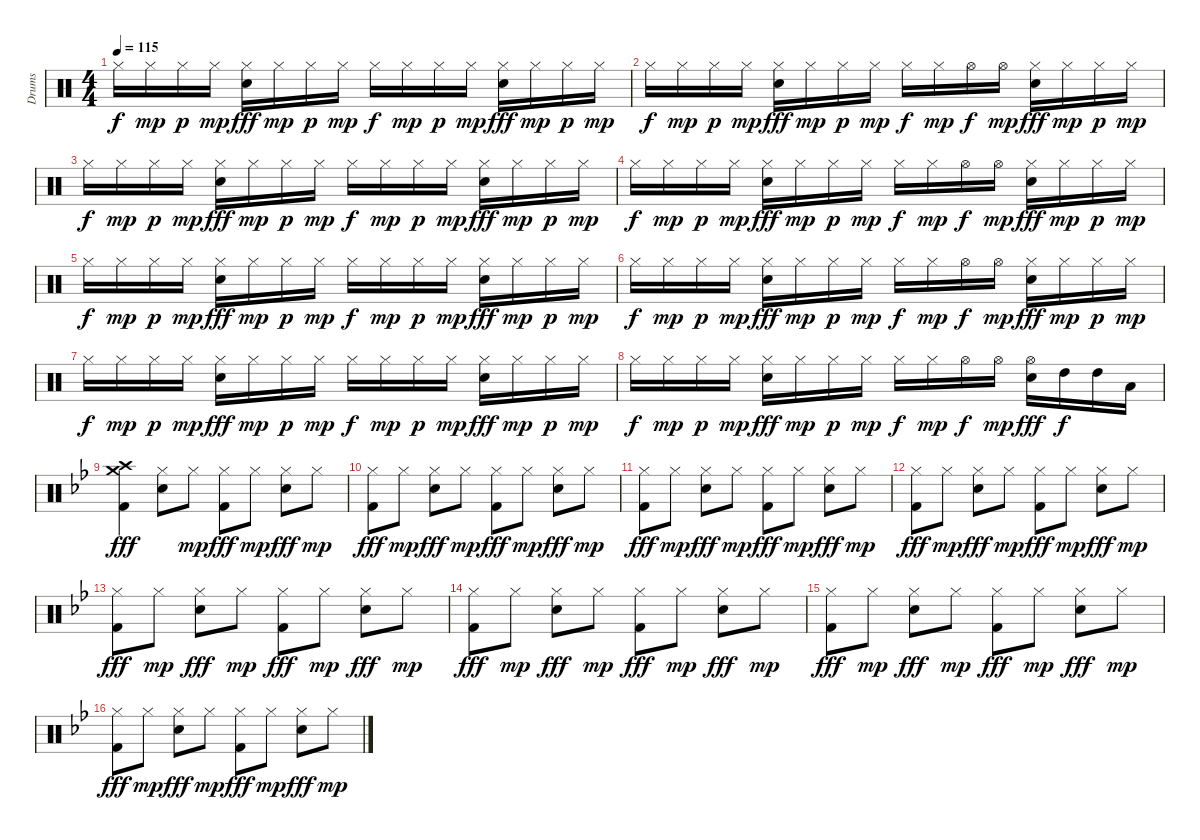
\track ("Drums" "Drums") {instrument percussion}
\staff {score}
\articulation defaults
\ts (4 4)
\tempo 115
\clef neutral
\ks c "Hi-Hat (closed)".16{dy f} "Hi-Hat (closed)".16{dy mp} "Hi-Hat (closed)".16{dy p} "Hi-Hat (closed)".16{dy mp}
("Hi-Hat (closed)" "Electric Snare (hit)").16{dy fff} "Hi-Hat (closed)".16{dy mp} "Hi-Hat (closed)".16{dy p} "Hi-Hat (closed)".16{dy mp} "Hi-Hat (closed)".16{dy f} "Hi-Hat (closed)".16{dy mp} "Hi-Hat (closed)".16{dy p} "Hi-Hat (closed)".16{dy mp} ("Hi-Hat (closed)" "Electric Snare (hit)").16{dy fff} "Hi-Hat (closed)".16{dy mp} "Hi-Hat (closed)".16{dy p} "Hi-Hat (closed)".16{dy mp} |
"Hi-Hat (closed)".16{dy f} "Hi-Hat (closed)".16{dy mp} "Hi-Hat (closed)".16{dy p} "Hi-Hat (closed)".16{dy mp} ("Hi-Hat (closed)" "Electric Snare (hit)").16{dy fff} "Hi-Hat (closed)".16{dy mp} "Hi-Hat (closed)".16{dy p} "Hi-Hat (closed)".16{dy mp} "Hi-Hat (closed)".16{dy f} "Hi-Hat (closed)".16{dy mp} "Hi-Hat (open)".16{dy f} "Hi-Hat (open)".16{dy mp} ("Hi-Hat (closed)" "Electric Snare (hit)").16{dy fff} "Hi-Hat (closed)".16{dy mp} "Hi-Hat (closed)".16{dy p} "Hi-Hat (closed)".16{dy mp} |
"Hi-Hat (closed)".16{dy f} "Hi-Hat (closed)".16{dy mp} "Hi-Hat (closed)".16{dy p} "Hi-Hat (closed)".16{dy mp} ("Hi-Hat (closed)" "Electric Snare (hit)").16{dy fff} "Hi-Hat (closed)".16{dy mp} "Hi-Hat (closed)".16{dy p} "Hi-Hat (closed)".16{dy mp} "Hi-Hat (closed)".16{dy f} "Hi-Hat (closed)".16{dy mp} "Hi-Hat (closed)".16{dy p} "Hi-Hat (closed)".16{dy mp} ("Hi-Hat (closed)" "Electric Snare (hit)").16{dy fff} "Hi-Hat (closed)".16{dy mp} "Hi-Hat (closed)".16{dy p} "Hi-Hat (closed)".16{dy mp} |
"Hi-Hat (closed)".16{dy f} "Hi-Hat (closed)".16{dy mp} "Hi-Hat (closed)".16{dy p} "Hi-Hat (closed)".16{dy mp} ("Hi-Hat (closed)" "Electric Snare (hit)").16{dy fff} "Hi-Hat (closed)".16{dy mp} "Hi-Hat (closed)".16{dy p} "Hi-Hat (closed)".16{dy mp} "Hi-Hat (closed)".16{dy f} "Hi-Hat (closed)".16{dy mp} "Hi-Hat (open)".16{dy f} "Hi-Hat (open)".16{dy mp} ("Hi-Hat (closed)" "Electric Snare (hit)").16{dy fff} "Hi-Hat (closed)".16{dy mp} "Hi-Hat (closed)".16{dy p} "Hi-Hat (closed)".16{dy mp} |
"Hi-Hat (closed)".16{dy f} "Hi-Hat (closed)".16{dy mp} "Hi-Hat (closed)".16{dy p} "Hi-Hat (closed)".16{dy mp} ("Hi-Hat (closed)" "Electric Snare (hit)").16{dy fff} "Hi-Hat (closed)".16{dy mp} "Hi-Hat (closed)".16{dy p} "Hi-Hat (closed)".16{dy mp} "Hi-Hat (closed)".16{dy f} "Hi-Hat (closed)".16{dy mp} "Hi-Hat (closed)".16{dy p} "Hi-Hat (closed)".16{dy mp} ("Hi-Hat (closed)" "Electric Snare (hit)").16{dy fff} "Hi-Hat (closed)".16{dy mp} "Hi-Hat (closed)".16{dy p} "Hi-Hat (closed)".16{dy mp} |
"Hi-Hat (closed)".16{dy f} "Hi-Hat (closed)".16{dy mp} "Hi-Hat (closed)".16{dy p} "Hi-Hat (closed)".16{dy mp} ("Hi-Hat (closed)" "Electric Snare (hit)").16{dy fff} "Hi-Hat (closed)".16{dy mp} "Hi-Hat (closed)".16{dy p} "Hi-Hat (closed)".16{dy mp} "Hi-Hat (closed)".16{dy f} "Hi-Hat (closed)".16{dy mp} "Hi-Hat (open)".16{dy f} "Hi-Hat (open)".16{dy mp} ("Hi-Hat (closed)" "Electric Snare (hit)").16{dy fff} "Hi-Hat (closed)".16{dy mp} "Hi-Hat (closed)".16{dy p} "Hi-Hat (closed)".16{dy mp} |
"Hi-Hat (closed)".16{dy f} "Hi-Hat (closed)".16{dy mp} "Hi-Hat (closed)".16{dy p} "Hi-Hat (closed)".16{dy mp} ("Hi-Hat (closed)" "Electric Snare (hit)").16{dy fff} "Hi-Hat (closed)".16{dy mp} "Hi-Hat (closed)".16{dy p} "Hi-Hat (closed)".16{dy mp} "Hi-Hat (closed)".16{dy f} "Hi-Hat (closed)".16{dy mp} "Hi-Hat (closed)".16{dy p} "Hi-Hat (closed)".16{dy mp} ("Hi-Hat (closed)" "Electric Snare (hit)").16{dy fff} "Hi-Hat (closed)".16{dy mp} "Hi-Hat (closed)".16{dy p} "Hi-Hat (closed)".16{dy mp} |
"Hi-Hat (closed)".16{dy f} "Hi-Hat (closed)".16{dy mp} "Hi-Hat (closed)".16{dy p} "Hi-Hat (closed)".16{dy mp} ("Hi-Hat (closed)" "Electric Snare (hit)").16{dy fff} "Hi-Hat (closed)".16{dy mp} "Hi-Hat (closed)".16{dy p} "Hi-Hat (closed)".16{dy mp} "Hi-Hat (closed)".16{dy f} "Hi-Hat (closed)".16{dy mp} "Hi-Hat (open)".16{dy f} "Hi-Hat (open)".16{dy mp} ("Hi-Hat (open)" "Electric Snare (hit)").16{dy fff} "High Tom (hit)".16{dy f} "High Tom (hit)".16 "Low Tom (hit)".16 |
\ks bb
("Crash high (hit)" "Crash medium (hit)" "Kick (hit) 2").4{dy fff} ("Hi-Hat (closed)" "Electric Snare (hit)").8 "Hi-Hat (closed)".8{dy mp} ("Hi-Hat (closed)" "Kick (hit) 2").8{dy fff} "Hi-Hat (closed)".8{dy mp} ("Hi-Hat (closed)" "Electric Snare (hit)").8{dy fff} "Hi-Hat (closed)".8{dy mp} |
("Hi-Hat (closed)" "Kick (hit) 2").8{dy fff} "Hi-Hat (closed)".8{dy mp} ("Hi-Hat (closed)" "Electric Snare (hit)").8{dy fff} "Hi-Hat (closed)".8{dy mp} ("Hi-Hat (closed)" "Kick (hit) 2").8{dy fff} "Hi-Hat (closed)".8{dy mp} ("Hi-Hat (closed)" "Electric Snare (hit)").8{dy fff} "Hi-Hat (closed)".8{dy mp} |
("Hi-Hat (closed)" "Kick (hit) 2").8{dy fff} "Hi-Hat (closed)".8{dy mp} ("Hi-Hat (closed)" "Electric Snare (hit)").8{dy fff} "Hi-Hat (closed)".8{dy mp} ("Hi-Hat (closed)" "Kick (hit) 2").8{dy fff} "Hi-Hat (closed)".8{dy mp} ("Hi-Hat (closed)" "Electric Snare (hit)").8{dy fff} "Hi-Hat (closed)".8{dy mp} |
("Hi-Hat (closed)" "Kick (hit) 2").8{dy fff} "Hi-Hat (closed)".8{dy mp} ("Hi-Hat (closed)" "Electric Snare (hit)").8{dy fff} "Hi-Hat (closed)".8{dy mp} ("Hi-Hat (closed)" "Kick (hit) 2").8{dy fff} "Hi-Hat (closed)".8{dy mp} ("Hi-Hat (closed)" "Electric Snare (hit)").8{dy fff} "Hi-Hat (closed)".8{dy mp} |
("Hi-Hat (closed)" "Kick (hit) 2").8{dy fff} "Hi-Hat (closed)".8{dy mp} ("Hi-Hat (closed)" "Electric Snare (hit)").8{dy fff} "Hi-Hat (closed)".8{dy mp} ("Hi-Hat (closed)" "Kick (hit) 2").8{dy fff} "Hi-Hat (closed)".8{dy mp} ("Hi-Hat (closed)" "Electric Snare (hit)").8{dy fff} "Hi-Hat (closed)".8{dy mp} |
("Hi-Hat (closed)" "Kick (hit) 2").8{dy fff} "Hi-Hat (closed)".8{dy mp} ("Hi-Hat (closed)" "Electric Snare (hit)").8{dy fff} "Hi-Hat (closed)".8{dy mp} ("Hi-Hat (closed)" "Kick (hit) 2").8{dy fff} "Hi-Hat (closed)".8{dy mp} ("Hi-Hat (closed)" "Electric Snare (hit)").8{dy fff} "Hi-Hat (closed)".8{dy mp} |
("Hi-Hat (closed)" "Kick (hit) 2").8{dy fff} "Hi-Hat (closed)".8{dy mp} ("Hi-Hat (closed)" "Electric Snare (hit)").8{dy fff} "Hi-Hat (closed)".8{dy mp} ("Hi-Hat (closed)" "Kick (hit) 2").8{dy fff} "Hi-Hat (closed)".8{dy mp} ("Hi-Hat (closed)" "Electric Snare (hit)").8{dy fff} "Hi-Hat (closed)".8{dy mp} |
("Hi-Hat (closed)" "Kick (hit) 2").8{dy fff} "Hi-Hat (closed)".8{dy mp} ("Hi-Hat (closed)" "Electric Snare (hit)").8{dy fff} "Hi-Hat (closed)".8{dy mp} ("Hi-Hat (closed)" "Kick (hit) 2").8{dy fff} "Hi-Hat (closed)".8{dy mp} ("Hi-Hat (closed)" "Electric Snare (hit)").8{dy fff} "Hi-Hat (closed)".8{dy mp}
